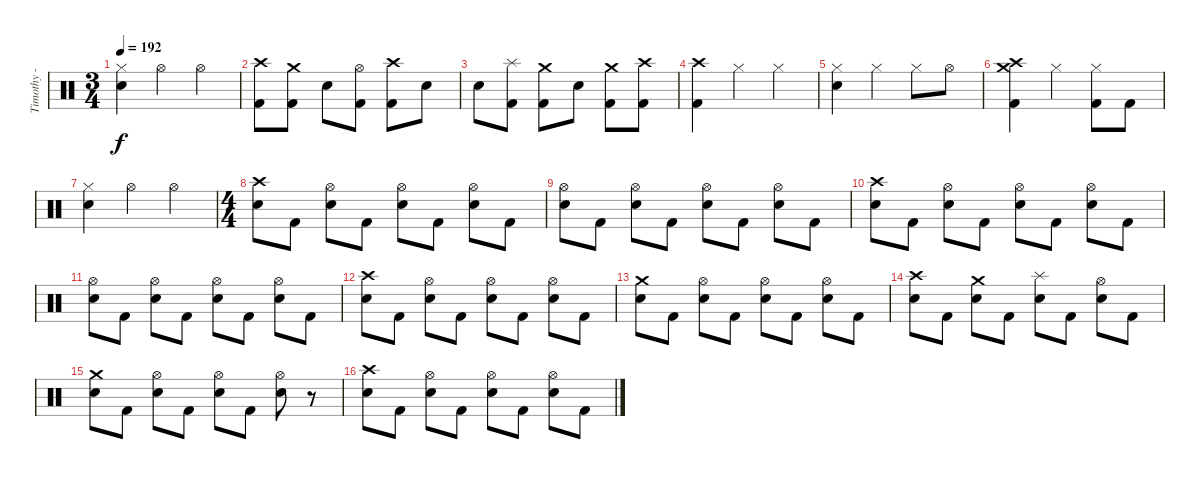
\track ("Timothy - Drums" "Timothy - ") {instrument percussion}
\staff {score}
\articulation defaults
\ts (3 4)
\tempo 192
\clef neutral
\ks c
("Hi-Hat (closed)" "Electric Snare (hit)").4{dy f} "Hi-Hat (open)".4 "Hi-Hat (open)".4 |
("Crash high (hit)" "Kick (hit) 2").8 ("Crash medium (hit)" "Kick (hit) 2").8 "Snare (hit)".8 ("Hi-Hat (open)" "Kick (hit) 2").8 ("Crash high (hit)" "Kick (hit) 2").8 "Snare (hit)".8 |
"Snare (hit)".8 ("Splash (hit)" "Kick (hit) 2").8 ("Crash medium (hit)" "Kick (hit) 2").8 "Snare (hit)".8 ("Crash medium (hit)" "Kick (hit) 2").8 ("Crash high (hit)" "Kick (hit) 2").8 |
("Crash high (hit)" "Kick (hit) 2").4 "Hi-Hat (closed)".4 "Hi-Hat (closed)".4 |
("Hi-Hat (closed)" "Electric Snare (hit)").4 "Hi-Hat (closed)".4 "Hi-Hat (closed)".8 "Hi-Hat (open)".8 |
("Crash high (hit)" "Crash medium (hit)" "Kick (hit) 2").4 "Hi-Hat (closed)".4 ("Hi-Hat (closed)" "Kick (hit) 2").8 "Kick (hit) 2".8 |
("Hi-Hat (closed)" "Electric Snare (hit)").4 "Hi-Hat (open)".4 "Hi-Hat (open)".4 |
\ts (4 4)
("Crash high (hit)" "Electric Snare (hit)").8 "Kick (hit) 2".8 ("Hi-Hat (open)" "Electric Snare (hit)").8 "Kick (hit) 2".8 ("Hi-Hat (open)" "Electric Snare (hit)").8 "Kick (hit) 2".8 ("Hi-Hat (open)" "Electric Snare (hit)").8 "Kick (hit) 2".8 |
("Hi-Hat (open)" "Electric Snare (hit)").8 "Kick (hit) 2".8 ("Hi-Hat (open)" "Electric Snare (hit)").8 "Kick (hit) 2".8 ("Hi-Hat (open)" "Electric Snare (hit)").8 "Kick (hit) 2".8 ("Hi-Hat (open)" "Electric Snare (hit)").8 "Kick (hit) 2".8 |
("Crash high (hit)" "Electric Snare (hit)").8 "Kick (hit) 2".8 ("Hi-Hat (open)" "Electric Snare (hit)").8 "Kick (hit) 2".8 ("Hi-Hat (open)" "Electric Snare (hit)").8 "Kick (hit) 2".8 ("Hi-Hat (open)" "Electric Snare (hit)").8 "Kick (hit) 2".8 |
("Hi-Hat (open)" "Electric Snare (hit)").8 "Kick (hit) 2".8 ("Hi-Hat (open)" "Electric Snare (hit)").8 "Kick (hit) 2".8 ("Hi-Hat (open)" "Electric Snare (hit)").8 "Kick (hit) 2".8 ("Hi-Hat (open)" "Electric Snare (hit)").8 "Kick (hit) 2".8 |
("Crash high (hit)" "Electric Snare (hit)").8 "Kick (hit) 2".8 ("Hi-Hat (open)" "Electric Snare (hit)").8 "Kick (hit) 2".8 ("Hi-Hat (open)" "Electric Snare (hit)").8 "Kick (hit) 2".8 ("Hi-Hat (open)" "Electric Snare (hit)").8 "Kick (hit) 2".8 |
("Crash medium (hit)" "Electric Snare (hit)").8 "Kick (hit) 2".8 ("Hi-Hat (open)" "Electric Snare (hit)").8 "Kick (hit) 2".8 ("Hi-Hat (open)" "Electric Snare (hit)").8 "Kick (hit) 2".8 ("Hi-Hat (open)" "Electric Snare (hit)").8 "Kick (hit) 2".8 |
("Crash high (hit)" "Electric Snare (hit)").8 "Kick (hit) 2".8 ("Crash medium (hit)" "Electric Snare (hit)").8 "Kick (hit) 2".8 ("Splash (hit)" "Electric Snare (hit)").8 "Kick (hit) 2".8 ("Hi-Hat (open)" "Electric Snare (hit)").8 "Kick (hit) 2".8 |
("Crash medium (hit)" "Electric Snare (hit)").8 "Kick (hit) 2".8 ("Hi-Hat (open)" "Electric Snare (hit)").8 "Kick (hit) 2".8 ("Hi-Hat (open)" "Electric Snare (hit)").8 "Kick (hit) 2".8 ("Hi-Hat (open)" "Electric Snare (hit)").8 r.8 |
("Crash high (hit)" "Electric Snare (hit)").8 "Kick (hit) 2".8 ("Hi-Hat (open)" "Electric Snare (hit)").8 "Kick (hit) 2".8 ("Hi-Hat (open)" "Electric Snare (hit)").8 "Kick (hit) 2".8 ("Hi-Hat (open)" "Electric Snare (hit)").8 "Kick (hit) 2".8
